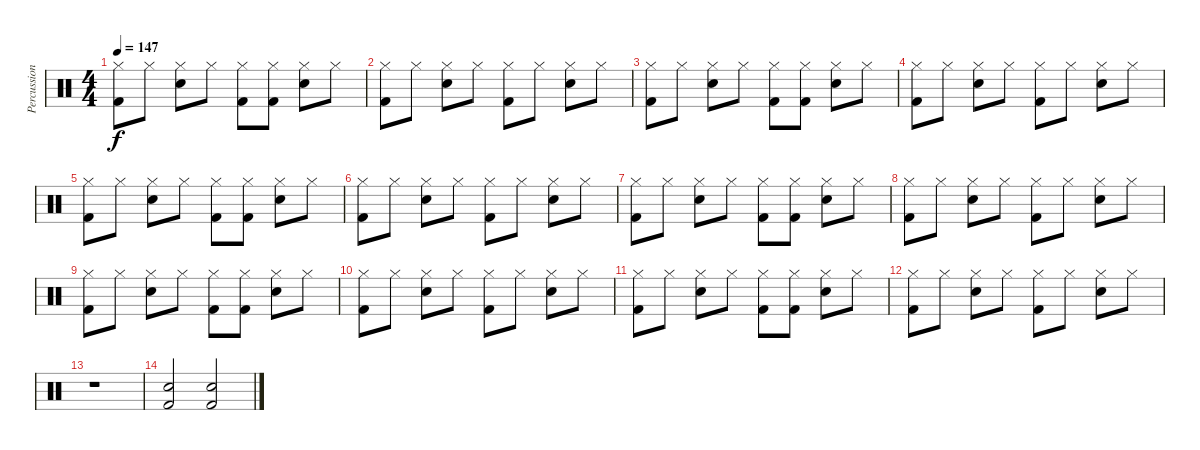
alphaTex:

\track ("Percussions" "Percussion") {instrument percussion}
\staff {score}
\articulation defaults
\ts (4 4)
\tempo 147
\clef neutral
\ks c
("Kick (hit) 2" "Hi-Hat (closed)").8{dy f} "Hi-Hat (closed)".8 ("Electric Snare (hit)" "Hi-Hat (closed)").8 "Hi-Hat (closed)".8 ("Kick (hit) 2" "Hi-Hat (closed)").8 ("Kick (hit) 2" "Hi-Hat (closed)").8 ("Electric Snare (hit)" "Hi-Hat (closed)").8 "Hi-Hat (closed)".8 |
("Kick (hit) 2" "Hi-Hat (closed)").8 "Hi-Hat (closed)".8 ("Electric Snare (hit)" "Hi-Hat (closed)").8 "Hi-Hat (closed)".8 ("Kick (hit) 2" "Hi-Hat (closed)").8 "Hi-Hat (closed)".8 ("Electric Snare (hit)" "Hi-Hat (closed)").8 "Hi-Hat (closed)".8 |
("Kick (hit) 2" "Hi-Hat (closed)").8 "Hi-Hat (closed)".8 ("Electric Snare (hit)" "Hi-Hat (closed)").8 "Hi-Hat (closed)".8 ("Kick (hit) 2" "Hi-Hat (closed)").8 ("Kick (hit) 2" "Hi-Hat (closed)").8 ("Electric Snare (hit)" "Hi-Hat (closed)").8 "Hi-Hat (closed)".8 |
("Kick (hit) 2" "Hi-Hat (closed)").8 "Hi-Hat (closed)".8 ("Electric Snare (hit)" "Hi-Hat (closed)").8 "Hi-Hat (closed)".8 ("Kick (hit) 2" "Hi-Hat (closed)").8 "Hi-Hat (closed)".8 ("Electric Snare (hit)" "Hi-Hat (closed)").8 "Hi-Hat (closed)".8 |
("Kick (hit) 2" "Hi-Hat (closed)").8 "Hi-Hat (closed)".8 ("Electric Snare (hit)" "Hi-Hat (closed)").8 "Hi-Hat (closed)".8 ("Kick (hit) 2" "Hi-Hat (closed)").8 ("Kick (hit) 2" "Hi-Hat (closed)").8 ("Electric Snare (hit)" "Hi-Hat (closed)").8 "Hi-Hat (closed)".8 |
("Kick (hit) 2" "Hi-Hat (closed)").8 "Hi-Hat (closed)".8 ("Electric Snare (hit)" "Hi-Hat (closed)").8 "Hi-Hat (closed)".8 ("Kick (hit) 2" "Hi-Hat (closed)").8 "Hi-Hat (closed)".8 ("Electric Snare (hit)" "Hi-Hat (closed)").8 "Hi-Hat (closed)".8 |
("Kick (hit) 2" "Hi-Hat (closed)").8 "Hi-Hat (closed)".8 ("Electric Snare (hit)" "Hi-Hat (closed)").8 "Hi-Hat (closed)".8 ("Kick (hit) 2" "Hi-Hat (closed)").8 ("Kick (hit) 2" "Hi-Hat (closed)").8 ("Electric Snare (hit)" "Hi-Hat (closed)").8 "Hi-Hat (closed)".8 |
("Kick (hit) 2" "Hi-Hat (closed)").8 "Hi-Hat (closed)".8 ("Electric Snare (hit)" "Hi-Hat (closed)").8 "Hi-Hat (closed)".8 ("Kick (hit) 2" "Hi-Hat (closed)").8 "Hi-Hat (closed)".8 ("Electric Snare (hit)" "Hi-Hat (closed)").8 "Hi-Hat (closed)".8 |
("Kick (hit) 2" "Hi-Hat (closed)").8 "Hi-Hat (closed)".8 ("Electric Snare (hit)" "Hi-Hat (closed)").8 "Hi-Hat (closed)".8 ("Kick (hit) 2" "Hi-Hat (closed)").8 ("Kick (hit) 2" "Hi-Hat (closed)").8 ("Electric Snare (hit)" "Hi-Hat (closed)").8 "Hi-Hat (closed)".8 |
("Kick (hit) 2" "Hi-Hat (closed)").8 "Hi-Hat (closed)".8 ("Electric Snare (hit)" "Hi-Hat (closed)").8 "Hi-Hat (closed)".8 ("Kick (hit) 2" "Hi-Hat (closed)").8 "Hi-Hat (closed)".8 ("Electric Snare (hit)" "Hi-Hat (closed)").8 "Hi-Hat (closed)".8 |
("Kick (hit) 2" "Hi-Hat (closed)").8 "Hi-Hat (closed)".8 ("Electric Snare (hit)" "Hi-Hat (closed)").8 "Hi-Hat (closed)".8 ("Kick (hit) 2" "Hi-Hat (closed)").8 ("Kick (hit) 2" "Hi-Hat (closed)").8 ("Electric Snare (hit)" "Hi-Hat (closed)").8 "Hi-Hat (closed)".8 |
("Kick (hit) 2" "Hi-Hat (closed)").8 "Hi-Hat (closed)".8 ("Electric Snare (hit)" "Hi-Hat (closed)").8 "Hi-Hat (closed)".8 ("Kick (hit) 2" "Hi-Hat (closed)").8 "Hi-Hat (closed)".8 ("Electric Snare (hit)" "Hi-Hat (closed)").8 "Hi-Hat (closed)".8 |
r.1 |
("Electric Snare (hit)" "Kick (hit) 2").2 ("Electric Snare (hit)" "Kick (hit) 2").2
